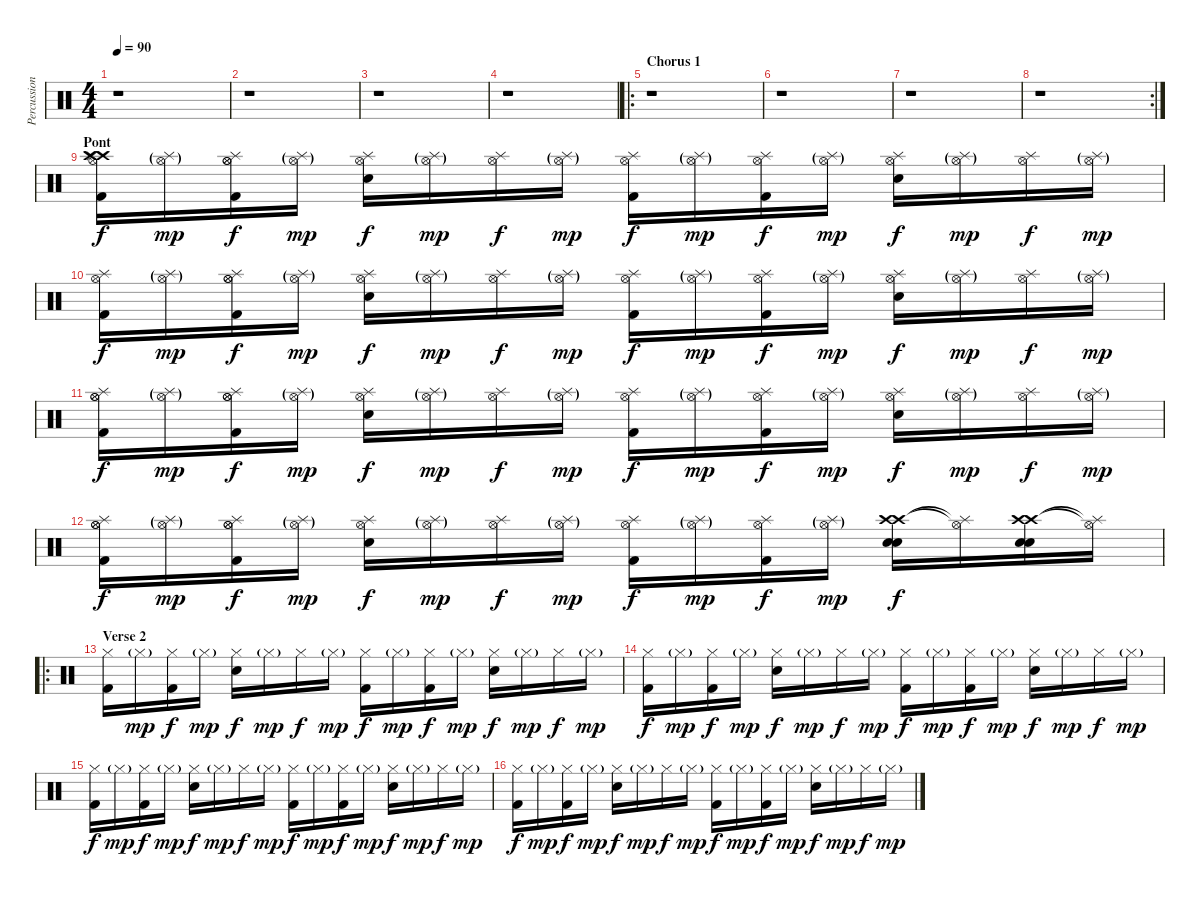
\track ("Percussions" "Percussion") {instrument percussion}
\staff {score}
\articulation defaults
\ts (4 4)
\tempo 90
\clef neutral
\ks c
r.1{dy f} |
r.1 |
r.1 |
r.1 |
\ro
\section ("" "Chorus 1")
r.1 |
r.1 |
r.1 |
\rc 2
r.1 |
\section ("" "Pont")
("Crash high (hit)" "Splash (hit)" "Hi-Hat (open)" "Crash high (hit)" "Kick (hit) 2").16 ("Splash (hit)"{g} "Hi-Hat (open)"{g}).16{dy mp} ("Hi-Hat (open)" "Splash (hit)" "Hi-Hat (open)" "Kick (hit) 2").16{dy f} ("Splash (hit)"{g} "Hi-Hat (open)"{g}).16{dy mp} ("Splash (hit)" "Hi-Hat (open)" "Electric Snare (hit)").16{dy f} ("Splash (hit)"{g} "Hi-Hat (open)"{g}).16{dy mp} ("Splash (hit)" "Hi-Hat (open)").16{dy f} ("Splash (hit)"{g} "Hi-Hat (open)"{g}).16{dy mp} ("Splash (hit)" "Hi-Hat (open)" "Kick (hit) 2").16{dy f} ("Splash (hit)"{g} "Hi-Hat (open)"{g}).16{dy mp} ("Splash (hit)" "Hi-Hat (open)" "Kick (hit) 2").16{dy f} ("Splash (hit)"{g} "Hi-Hat (open)"{g}).16{dy mp} ("Splash (hit)" "Hi-Hat (open)" "Electric Snare (hit)").16{dy f} ("Splash (hit)"{g} "Hi-Hat (open)"{g}).16{dy mp} ("Splash (hit)" "Hi-Hat (open)").16{dy f} ("Splash (hit)"{g} "Hi-Hat (open)"{g}).16{dy mp} |
("Splash (hit)" "Hi-Hat (open)" "Kick (hit) 2").16{dy f} ("Splash (hit)"{g} "Hi-Hat (open)"{g}).16{dy mp} ("Hi-Hat (open)" "Splash (hit)" "Hi-Hat (open)" "Kick (hit) 2").16{dy f} ("Splash (hit)"{g} "Hi-Hat (open)"{g}).16{dy mp} ("Splash (hit)" "Hi-Hat (open)" "Electric Snare (hit)").16{dy f} ("Splash (hit)"{g} "Hi-Hat (open)"{g}).16{dy mp} ("Splash (hit)" "Hi-Hat (open)").16{dy f} ("Splash (hit)"{g} "Hi-Hat (open)"{g}).16{dy mp} ("Splash (hit)" "Hi-Hat (open)" "Kick (hit) 2").16{dy f} ("Splash (hit)"{g} "Hi-Hat (open)"{g}).16{dy mp} ("Splash (hit)" "Hi-Hat (open)" "Kick (hit) 2").16{dy f} ("Splash (hit)"{g} "Hi-Hat (open)"{g}).16{dy mp} ("Splash (hit)" "Hi-Hat (open)" "Electric Snare (hit)").16{dy f} ("Splash (hit)"{g} "Hi-Hat (open)"{g}).16{dy mp} ("Splash (hit)" "Hi-Hat (open)").16{dy f} ("Splash (hit)"{g} "Hi-Hat (open)"{g}).16{dy mp} |
("Hi-Hat (open)" "Splash (hit)" "Hi-Hat (open)" "Kick (hit) 2").16{dy f} ("Splash (hit)"{g} "Hi-Hat (open)"{g}).16{dy mp} ("Hi-Hat (open)" "Splash (hit)" "Hi-Hat (open)" "Kick (hit) 2").16{dy f} ("Splash (hit)"{g} "Hi-Hat (open)"{g}).16{dy mp} ("Splash (hit)" "Hi-Hat (open)" "Electric Snare (hit)").16{dy f} ("Splash (hit)"{g} "Hi-Hat (open)"{g}).16{dy mp} ("Splash (hit)" "Hi-Hat (open)").16{dy f} ("Splash (hit)"{g} "Hi-Hat (open)"{g}).16{dy mp} ("Splash (hit)" "Hi-Hat (open)" "Kick (hit) 2").16{dy f} ("Splash (hit)"{g} "Hi-Hat (open)"{g}).16{dy mp} ("Splash (hit)" "Hi-Hat (open)" "Kick (hit) 2").16{dy f} ("Splash (hit)"{g} "Hi-Hat (open)"{g}).16{dy mp} ("Splash (hit)" "Hi-Hat (open)" "Electric Snare (hit)").16{dy f} ("Splash (hit)"{g} "Hi-Hat (open)"{g}).16{dy mp} ("Splash (hit)" "Hi-Hat (open)").16{dy f} ("Splash (hit)"{g} "Hi-Hat (open)"{g}).16{dy mp} |
("Hi-Hat (open)" "Splash (hit)" "Hi-Hat (open)" "Kick (hit) 2").16{dy f} ("Splash (hit)"{g} "Hi-Hat (open)"{g}).16{dy mp} ("Hi-Hat (open)" "Splash (hit)" "Hi-Hat (open)" "Kick (hit) 2").16{dy f} ("Splash (hit)"{g} "Hi-Hat (open)"{g}).16{dy mp} ("Splash (hit)" "Hi-Hat (open)" "Electric Snare (hit)").16{dy f} ("Splash (hit)"{g} "Hi-Hat (open)"{g}).16{dy mp} ("Splash (hit)" "Hi-Hat (open)").16{dy f} ("Splash (hit)"{g} "Hi-Hat (open)"{g}).16{dy mp} ("Splash (hit)" "Hi-Hat (open)" "Kick (hit) 2").16{dy f} ("Splash (hit)"{g} "Hi-Hat (open)"{g}).16{dy mp} ("Splash (hit)" "Hi-Hat (open)" "Kick (hit) 2").16{dy f} ("Splash (hit)"{g} "Hi-Hat (open)"{g}).16{dy mp} ("Crash high (hit)" "Crash high (hit)" "Electric Snare (hit)" "Electric Snare (hit)").16{dy f} ("Splash (hit)"{t} "Hi-Hat (open)"{t}).16 ("Crash high (hit)" "Crash high (hit)" "Electric Snare (hit)" "Electric Snare (hit)").16 ("Splash (hit)"{t} "Hi-Hat (open)"{t}).16 |
\ro
\section ("" "Verse 2")
("Hi-Hat (closed)" "Kick (hit) 2").16 "Hi-Hat (closed)"{g}.16{dy mp} ("Hi-Hat (closed)" "Kick (hit) 2").16{dy f} "Hi-Hat (closed)"{g}.16{dy mp} ("Hi-Hat (closed)" "Electric Snare (hit)").16{dy f} "Hi-Hat (closed)"{g}.16{dy mp} "Hi-Hat (closed)".16{dy f} "Hi-Hat (closed)"{g}.16{dy mp} ("Hi-Hat (closed)" "Kick (hit) 2").16{dy f} "Hi-Hat (closed)"{g}.16{dy mp} ("Hi-Hat (closed)" "Kick (hit) 2").16{dy f} "Hi-Hat (closed)"{g}.16{dy mp} ("Hi-Hat (closed)" "Electric Snare (hit)").16{dy f} "Hi-Hat (closed)"{g}.16{dy mp} "Hi-Hat (closed)".16{dy f} "Hi-Hat (closed)"{g}.16{dy mp} |
("Hi-Hat (closed)" "Kick (hit) 2").16{dy f} "Hi-Hat (closed)"{g}.16{dy mp} ("Hi-Hat (closed)" "Kick (hit) 2").16{dy f} "Hi-Hat (closed)"{g}.16{dy mp} ("Hi-Hat (closed)" "Electric Snare (hit)").16{dy f} "Hi-Hat (closed)"{g}.16{dy mp} "Hi-Hat (closed)".16{dy f} "Hi-Hat (closed)"{g}.16{dy mp} ("Hi-Hat (closed)" "Kick (hit) 2").16{dy f} "Hi-Hat (closed)"{g}.16{dy mp} ("Hi-Hat (closed)" "Kick (hit) 2").16{dy f} "Hi-Hat (closed)"{g}.16{dy mp} ("Hi-Hat (closed)" "Electric Snare (hit)").16{dy f} "Hi-Hat (closed)"{g}.16{dy mp} "Hi-Hat (closed)".16{dy f} "Hi-Hat (closed)"{g}.16{dy mp} |
("Hi-Hat (closed)" "Kick (hit) 2").16{dy f} "Hi-Hat (closed)"{g}.16{dy mp} ("Hi-Hat (closed)" "Kick (hit) 2").16{dy f} "Hi-Hat (closed)"{g}.16{dy mp} ("Hi-Hat (closed)" "Electric Snare (hit)").16{dy f} "Hi-Hat (closed)"{g}.16{dy mp} "Hi-Hat (closed)".16{dy f} "Hi-Hat (closed)"{g}.16{dy mp} ("Hi-Hat (closed)" "Kick (hit) 2").16{dy f} "Hi-Hat (closed)"{g}.16{dy mp} ("Hi-Hat (closed)" "Kick (hit) 2").16{dy f} "Hi-Hat (closed)"{g}.16{dy mp} ("Hi-Hat (closed)" "Electric Snare (hit)").16{dy f} "Hi-Hat (closed)"{g}.16{dy mp} "Hi-Hat (closed)".16{dy f} "Hi-Hat (closed)"{g}.16{dy mp} |
("Hi-Hat (closed)" "Kick (hit) 2").16{dy f} "Hi-Hat (closed)"{g}.16{dy mp} ("Hi-Hat (closed)" "Kick (hit) 2").16{dy f} "Hi-Hat (closed)"{g}.16{dy mp} ("Hi-Hat (closed)" "Electric Snare (hit)").16{dy f} "Hi-Hat (closed)"{g}.16{dy mp} "Hi-Hat (closed)".16{dy f} "Hi-Hat (closed)"{g}.16{dy mp} ("Hi-Hat (closed)" "Kick (hit) 2").16{dy f} "Hi-Hat (closed)"{g}.16{dy mp} ("Hi-Hat (closed)" "Kick (hit) 2").16{dy f} "Hi-Hat (closed)"{g}.16{dy mp} ("Hi-Hat (closed)" "Electric Snare (hit)").16{dy f} "Hi-Hat (closed)"{g}.16{dy mp} "Hi-Hat (closed)".16{dy f} "Hi-Hat (closed)"{g}.16{dy mp}
